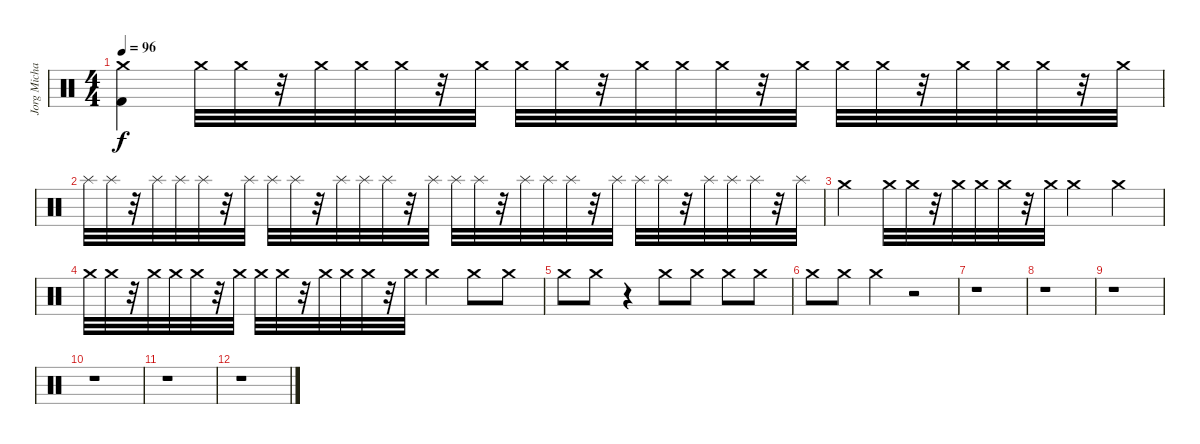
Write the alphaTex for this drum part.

\track ("Jorg Michael" "Jorg Micha") {instrument percussion}
\staff {score}
\articulation defaults
\ts (4 4)
\tempo 96
\clef neutral
\ks c
("Crash medium (hit)" "Kick (hit) 2").4{dy f} "Crash medium (hit)".32 "Crash medium (hit)".32 r.32 "Crash medium (hit)".32 "Crash medium (hit)".32 "Crash medium (hit)".32 r.32 "Crash medium (hit)".32 "Crash medium (hit)".32 "Crash medium (hit)".32 r.32 "Crash medium (hit)".32 "Crash medium (hit)".32 "Crash medium (hit)".32 r.32 "Crash medium (hit)".32 "Crash medium (hit)".32 "Crash medium (hit)".32 r.32 "Crash medium (hit)".32 "Crash medium (hit)".32 "Crash medium (hit)".32 r.32 "Crash medium (hit)".32 |
"Splash (hit)".32 "Splash (hit)".32 r.32 "Splash (hit)".32 "Splash (hit)".32 "Splash (hit)".32 r.32 "Splash (hit)".32 "Splash (hit)".32 "Splash (hit)".32 r.32 "Splash (hit)".32 "Splash (hit)".32 "Splash (hit)".32 r.32 "Splash (hit)".32 "Splash (hit)".32 "Splash (hit)".32 r.32 "Splash (hit)".32 "Splash (hit)".32 "Splash (hit)".32 r.32 "Splash (hit)".32 "Splash (hit)".32 "Splash (hit)".32 r.32 "Splash (hit)".32 "Splash (hit)".32 "Splash (hit)".32 r.32 "Splash (hit)".32 |
"Crash medium (hit)".4 "Crash medium (hit)".32 "Crash medium (hit)".32 r.32 "Crash medium (hit)".32 "Crash medium (hit)".32 "Crash medium (hit)".32 r.32 "Crash medium (hit)".32 "Crash medium (hit)".4 "Crash medium (hit)".4 |
"Crash medium (hit)".32 "Crash medium (hit)".32 r.32 "Crash medium (hit)".32 "Crash medium (hit)".32 "Crash medium (hit)".32 r.32 "Crash medium (hit)".32 "Crash medium (hit)".32 "Crash medium (hit)".32 r.32 "Crash medium (hit)".32 "Crash medium (hit)".32 "Crash medium (hit)".32 r.32 "Crash medium (hit)".32 "Crash medium (hit)".4 "Crash medium (hit)".8 "Crash medium (hit)".8 |
"Crash medium (hit)".8 "Crash medium (hit)".8 r.4 "Crash medium (hit)".8 "Crash medium (hit)".8 "Crash medium (hit)".8 "Crash medium (hit)".8 |
"Crash medium (hit)".8 "Crash medium (hit)".8 "Crash medium (hit)".4 r.2 |
r.1 |
r.1 |
r.1 |
r.1 |
r.1 |
r.1
